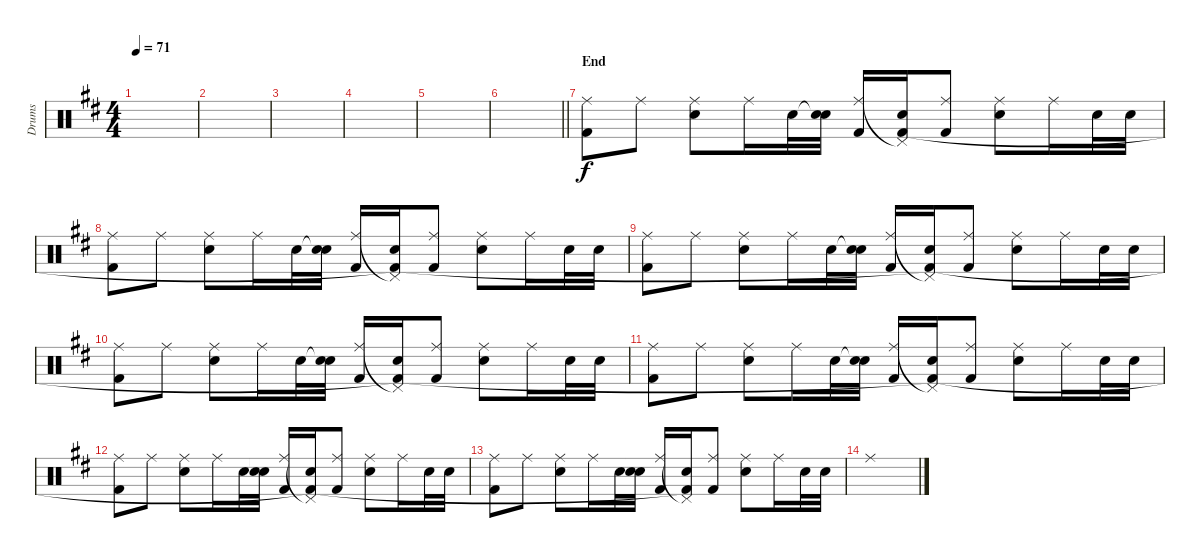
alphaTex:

\track ("Drums" "Drums") {instrument percussion}
\staff {score}
\articulation defaults
\ts (4 4)
\tempo 71
\clef neutral
\ks bminor
|
|
|
|
|
\barLineRight lightlight
|
\section ("" "End")
("Ride (middle)" "Kick (hit) 2").8 "Ride (middle)".8 ("Ride (middle)" "Electric Snare (hit)").8 "Ride (middle)".16 "Electric Snare (hit)".32 ("Snare (hit)"{t} "Electric Snare (hit)").32 ("Ride (middle)" "Kick (hit) 2").16 ("Pedal Hi-Hat (hit)"{t} "Electric Snare (hit)" "Kick (hit) 2").16 ("Ride (middle)" "Kick (hit) 2").8 ("Ride (middle)" "Electric Snare (hit)").8 "Ride (middle)".16 "Electric Snare (hit)".32 "Electric Snare (hit)".32 |
("Ride (middle)" "Kick (hit) 2").8 "Ride (middle)".8 ("Ride (middle)" "Electric Snare (hit)").8 "Ride (middle)".16 "Electric Snare (hit)".32 ("Snare (hit)"{t} "Electric Snare (hit)").32 ("Ride (middle)" "Kick (hit) 2").16 ("Pedal Hi-Hat (hit)"{t} "Electric Snare (hit)" "Kick (hit) 2"{t}).16 ("Ride (middle)" "Kick (hit) 2").8 ("Ride (middle)" "Electric Snare (hit)").8 "Ride (middle)".16 "Electric Snare (hit)".32 "Electric Snare (hit)".32 |
("Ride (middle)" "Kick (hit) 2").8 "Ride (middle)".8 ("Ride (middle)" "Electric Snare (hit)").8 "Ride (middle)".16 "Electric Snare (hit)".32 ("Snare (hit)"{t} "Electric Snare (hit)").32 ("Ride (middle)" "Kick (hit) 2").16 ("Pedal Hi-Hat (hit)"{t} "Electric Snare (hit)" "Kick (hit) 2"{t}).16 ("Ride (middle)" "Kick (hit) 2").8 ("Ride (middle)" "Electric Snare (hit)").8 "Ride (middle)".16 "Electric Snare (hit)".32 "Electric Snare (hit)".32 |
("Ride (middle)" "Kick (hit) 2").8 "Ride (middle)".8 ("Ride (middle)" "Electric Snare (hit)").8 "Ride (middle)".16 "Electric Snare (hit)".32 ("Snare (hit)"{t} "Electric Snare (hit)").32 ("Ride (middle)" "Kick (hit) 2").16 ("Pedal Hi-Hat (hit)"{t} "Electric Snare (hit)" "Kick (hit) 2"{t}).16 ("Ride (middle)" "Kick (hit) 2").8 ("Ride (middle)" "Electric Snare (hit)").8 "Ride (middle)".16 "Electric Snare (hit)".32 "Electric Snare (hit)".32 |
("Ride (middle)" "Kick (hit) 2").8 "Ride (middle)".8 ("Ride (middle)" "Electric Snare (hit)").8 "Ride (middle)".16 "Electric Snare (hit)".32 ("Snare (hit)"{t} "Electric Snare (hit)").32 ("Ride (middle)" "Kick (hit) 2").16 ("Pedal Hi-Hat (hit)"{t} "Electric Snare (hit)" "Kick (hit) 2"{t}).16 ("Ride (middle)" "Kick (hit) 2").8 ("Ride (middle)" "Electric Snare (hit)").8 "Ride (middle)".16 "Electric Snare (hit)".32 "Electric Snare (hit)".32 |
("Ride (middle)" "Kick (hit) 2").8 "Ride (middle)".8 ("Ride (middle)" "Electric Snare (hit)").8 "Ride (middle)".16 "Electric Snare (hit)".32 ("Snare (hit)"{t} "Electric Snare (hit)").32 ("Ride (middle)" "Kick (hit) 2").16 ("Pedal Hi-Hat (hit)"{t} "Electric Snare (hit)" "Kick (hit) 2"{t}).16 ("Ride (middle)" "Kick (hit) 2").8 ("Ride (middle)" "Electric Snare (hit)").8 "Ride (middle)".16 "Electric Snare (hit)".32 "Electric Snare (hit)".32 |
("Ride (middle)" "Kick (hit) 2").8 "Ride (middle)".8 ("Ride (middle)" "Electric Snare (hit)").8 "Ride (middle)".16 "Electric Snare (hit)".32 ("Snare (hit)"{t} "Electric Snare (hit)").32 ("Ride (middle)" "Kick (hit) 2").16 ("Pedal Hi-Hat (hit)"{t} "Electric Snare (hit)" "Kick (hit) 2"{t}).16 ("Ride (middle)" "Kick (hit) 2").8 ("Ride (middle)" "Electric Snare (hit)").8 "Ride (middle)".16 "Electric Snare (hit)".32 "Electric Snare (hit)".32 |
"Ride (middle)".1
